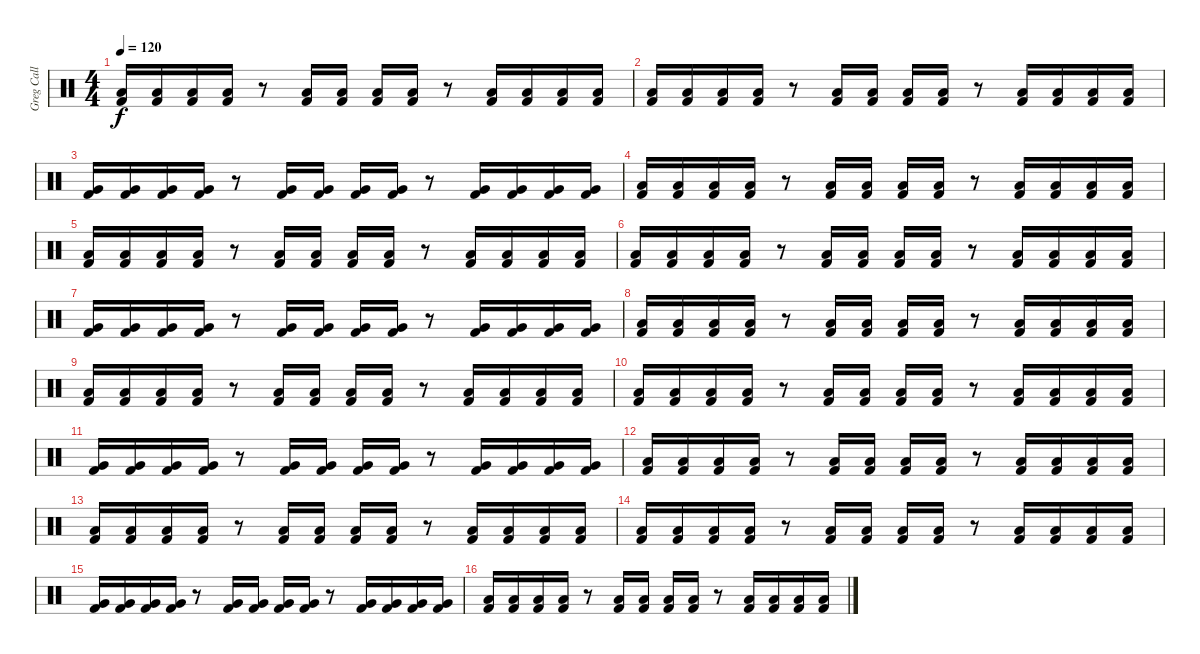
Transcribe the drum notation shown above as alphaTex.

\track ("Greg Call" "Greg Call") {instrument percussion}
\staff {score}
\articulation defaults
\ts (4 4)
\tempo 120
\tempo 126
\tempo 120
\clef neutral
\ks c
("Low Floor Tom (hit)" "Kick (hit) 2").16{dy f volume 14} ("Low Floor Tom (hit)" "Kick (hit) 2").16 ("Low Floor Tom (hit)" "Kick (hit) 2").16 ("Low Floor Tom (hit)" "Kick (hit) 2").16 r.8 ("Low Floor Tom (hit)" "Kick (hit) 2").16 ("Low Floor Tom (hit)" "Kick (hit) 2").16 ("Low Floor Tom (hit)" "Kick (hit) 2").16 ("Low Floor Tom (hit)" "Kick (hit) 2").16 r.8 ("Low Floor Tom (hit)" "Kick (hit) 2").16 ("Low Floor Tom (hit)" "Kick (hit) 2").16 ("Low Floor Tom (hit)" "Kick (hit) 2").16 ("Low Floor Tom (hit)" "Kick (hit) 2").16 |
("Low Floor Tom (hit)" "Kick (hit) 2").16 ("Low Floor Tom (hit)" "Kick (hit) 2").16 ("Low Floor Tom (hit)" "Kick (hit) 2").16 ("Low Floor Tom (hit)" "Kick (hit) 2").16 r.8 ("Low Floor Tom (hit)" "Kick (hit) 2").16 ("Low Floor Tom (hit)" "Kick (hit) 2").16 ("Low Floor Tom (hit)" "Kick (hit) 2").16 ("Low Floor Tom (hit)" "Kick (hit) 2").16 r.8 ("Low Floor Tom (hit)" "Kick (hit) 2").16 ("Low Floor Tom (hit)" "Kick (hit) 2").16 ("Low Floor Tom (hit)" "Kick (hit) 2").16 ("Low Floor Tom (hit)" "Kick (hit) 2").16 |
("Very Low Tom (hit)" "Kick (hit) 2").16 ("Very Low Tom (hit)" "Kick (hit) 2").16 ("Very Low Tom (hit)" "Kick (hit) 2").16 ("Very Low Tom (hit)" "Kick (hit) 2").16 r.8 ("Very Low Tom (hit)" "Kick (hit) 2").16 ("Very Low Tom (hit)" "Kick (hit) 2").16 ("Very Low Tom (hit)" "Kick (hit) 2").16 ("Very Low Tom (hit)" "Kick (hit) 2").16 r.8 ("Very Low Tom (hit)" "Kick (hit) 2").16 ("Very Low Tom (hit)" "Kick (hit) 2").16 ("Very Low Tom (hit)" "Kick (hit) 2").16 ("Very Low Tom (hit)" "Kick (hit) 2").16 |
("Low Tom (hit)" "Kick (hit) 2").16 ("Low Tom (hit)" "Kick (hit) 2").16 ("Low Tom (hit)" "Kick (hit) 2").16 ("Low Tom (hit)" "Kick (hit) 2").16 r.8 ("Low Tom (hit)" "Kick (hit) 2").16 ("Low Tom (hit)" "Kick (hit) 2").16 ("Low Tom (hit)" "Kick (hit) 2").16 ("Low Tom (hit)" "Kick (hit) 2").16 r.8 ("Low Tom (hit)" "Kick (hit) 2").16 ("Low Tom (hit)" "Kick (hit) 2").16 ("Low Tom (hit)" "Kick (hit) 2").16 ("Low Tom (hit)" "Kick (hit) 2").16 |
("Low Floor Tom (hit)" "Kick (hit) 2").16{volume 14} ("Low Floor Tom (hit)" "Kick (hit) 2").16 ("Low Floor Tom (hit)" "Kick (hit) 2").16 ("Low Floor Tom (hit)" "Kick (hit) 2").16 r.8 ("Low Floor Tom (hit)" "Kick (hit) 2").16 ("Low Floor Tom (hit)" "Kick (hit) 2").16 ("Low Floor Tom (hit)" "Kick (hit) 2").16 ("Low Floor Tom (hit)" "Kick (hit) 2").16 r.8 ("Low Floor Tom (hit)" "Kick (hit) 2").16 ("Low Floor Tom (hit)" "Kick (hit) 2").16 ("Low Floor Tom (hit)" "Kick (hit) 2").16 ("Low Floor Tom (hit)" "Kick (hit) 2").16 |
("Low Floor Tom (hit)" "Kick (hit) 2").16 ("Low Floor Tom (hit)" "Kick (hit) 2").16 ("Low Floor Tom (hit)" "Kick (hit) 2").16 ("Low Floor Tom (hit)" "Kick (hit) 2").16 r.8 ("Low Floor Tom (hit)" "Kick (hit) 2").16 ("Low Floor Tom (hit)" "Kick (hit) 2").16 ("Low Floor Tom (hit)" "Kick (hit) 2").16 ("Low Floor Tom (hit)" "Kick (hit) 2").16 r.8 ("Low Floor Tom (hit)" "Kick (hit) 2").16 ("Low Floor Tom (hit)" "Kick (hit) 2").16 ("Low Floor Tom (hit)" "Kick (hit) 2").16 ("Low Floor Tom (hit)" "Kick (hit) 2").16 |
("Very Low Tom (hit)" "Kick (hit) 2").16 ("Very Low Tom (hit)" "Kick (hit) 2").16 ("Very Low Tom (hit)" "Kick (hit) 2").16 ("Very Low Tom (hit)" "Kick (hit) 2").16 r.8 ("Very Low Tom (hit)" "Kick (hit) 2").16 ("Very Low Tom (hit)" "Kick (hit) 2").16 ("Very Low Tom (hit)" "Kick (hit) 2").16 ("Very Low Tom (hit)" "Kick (hit) 2").16 r.8 ("Very Low Tom (hit)" "Kick (hit) 2").16 ("Very Low Tom (hit)" "Kick (hit) 2").16 ("Very Low Tom (hit)" "Kick (hit) 2").16 ("Very Low Tom (hit)" "Kick (hit) 2").16 |
("Low Tom (hit)" "Kick (hit) 2").16 ("Low Tom (hit)" "Kick (hit) 2").16 ("Low Tom (hit)" "Kick (hit) 2").16 ("Low Tom (hit)" "Kick (hit) 2").16 r.8 ("Low Tom (hit)" "Kick (hit) 2").16 ("Low Tom (hit)" "Kick (hit) 2").16 ("Low Tom (hit)" "Kick (hit) 2").16 ("Low Tom (hit)" "Kick (hit) 2").16 r.8 ("Low Tom (hit)" "Kick (hit) 2").16 ("Low Tom (hit)" "Kick (hit) 2").16 ("Low Tom (hit)" "Kick (hit) 2").16 ("Low Tom (hit)" "Kick (hit) 2").16 |
("Low Floor Tom (hit)" "Kick (hit) 2").16{volume 14} ("Low Floor Tom (hit)" "Kick (hit) 2").16 ("Low Floor Tom (hit)" "Kick (hit) 2").16 ("Low Floor Tom (hit)" "Kick (hit) 2").16 r.8 ("Low Floor Tom (hit)" "Kick (hit) 2").16 ("Low Floor Tom (hit)" "Kick (hit) 2").16 ("Low Floor Tom (hit)" "Kick (hit) 2").16 ("Low Floor Tom (hit)" "Kick (hit) 2").16 r.8 ("Low Floor Tom (hit)" "Kick (hit) 2").16 ("Low Floor Tom (hit)" "Kick (hit) 2").16 ("Low Floor Tom (hit)" "Kick (hit) 2").16 ("Low Floor Tom (hit)" "Kick (hit) 2").16 |
("Low Floor Tom (hit)" "Kick (hit) 2").16 ("Low Floor Tom (hit)" "Kick (hit) 2").16 ("Low Floor Tom (hit)" "Kick (hit) 2").16 ("Low Floor Tom (hit)" "Kick (hit) 2").16 r.8 ("Low Floor Tom (hit)" "Kick (hit) 2").16 ("Low Floor Tom (hit)" "Kick (hit) 2").16 ("Low Floor Tom (hit)" "Kick (hit) 2").16 ("Low Floor Tom (hit)" "Kick (hit) 2").16 r.8 ("Low Floor Tom (hit)" "Kick (hit) 2").16 ("Low Floor Tom (hit)" "Kick (hit) 2").16 ("Low Floor Tom (hit)" "Kick (hit) 2").16 ("Low Floor Tom (hit)" "Kick (hit) 2").16 |
("Very Low Tom (hit)" "Kick (hit) 2").16 ("Very Low Tom (hit)" "Kick (hit) 2").16 ("Very Low Tom (hit)" "Kick (hit) 2").16 ("Very Low Tom (hit)" "Kick (hit) 2").16 r.8 ("Very Low Tom (hit)" "Kick (hit) 2").16 ("Very Low Tom (hit)" "Kick (hit) 2").16 ("Very Low Tom (hit)" "Kick (hit) 2").16 ("Very Low Tom (hit)" "Kick (hit) 2").16 r.8 ("Very Low Tom (hit)" "Kick (hit) 2").16 ("Very Low Tom (hit)" "Kick (hit) 2").16 ("Very Low Tom (hit)" "Kick (hit) 2").16 ("Very Low Tom (hit)" "Kick (hit) 2").16 |
("Low Tom (hit)" "Kick (hit) 2").16 ("Low Tom (hit)" "Kick (hit) 2").16 ("Low Tom (hit)" "Kick (hit) 2").16 ("Low Tom (hit)" "Kick (hit) 2").16 r.8 ("Low Tom (hit)" "Kick (hit) 2").16 ("Low Tom (hit)" "Kick (hit) 2").16 ("Low Tom (hit)" "Kick (hit) 2").16 ("Low Tom (hit)" "Kick (hit) 2").16 r.8 ("Low Tom (hit)" "Kick (hit) 2").16 ("Low Tom (hit)" "Kick (hit) 2").16 ("Low Tom (hit)" "Kick (hit) 2").16 ("Low Tom (hit)" "Kick (hit) 2").16 |
("Low Floor Tom (hit)" "Kick (hit) 2").16{volume 14} ("Low Floor Tom (hit)" "Kick (hit) 2").16 ("Low Floor Tom (hit)" "Kick (hit) 2").16 ("Low Floor Tom (hit)" "Kick (hit) 2").16 r.8 ("Low Floor Tom (hit)" "Kick (hit) 2").16 ("Low Floor Tom (hit)" "Kick (hit) 2").16 ("Low Floor Tom (hit)" "Kick (hit) 2").16 ("Low Floor Tom (hit)" "Kick (hit) 2").16 r.8 ("Low Floor Tom (hit)" "Kick (hit) 2").16 ("Low Floor Tom (hit)" "Kick (hit) 2").16 ("Low Floor Tom (hit)" "Kick (hit) 2").16 ("Low Floor Tom (hit)" "Kick (hit) 2").16 |
("Low Floor Tom (hit)" "Kick (hit) 2").16 ("Low Floor Tom (hit)" "Kick (hit) 2").16 ("Low Floor Tom (hit)" "Kick (hit) 2").16 ("Low Floor Tom (hit)" "Kick (hit) 2").16 r.8 ("Low Floor Tom (hit)" "Kick (hit) 2").16 ("Low Floor Tom (hit)" "Kick (hit) 2").16 ("Low Floor Tom (hit)" "Kick (hit) 2").16 ("Low Floor Tom (hit)" "Kick (hit) 2").16 r.8 ("Low Floor Tom (hit)" "Kick (hit) 2").16 ("Low Floor Tom (hit)" "Kick (hit) 2").16 ("Low Floor Tom (hit)" "Kick (hit) 2").16 ("Low Floor Tom (hit)" "Kick (hit) 2").16 |
("Very Low Tom (hit)" "Kick (hit) 2").16 ("Very Low Tom (hit)" "Kick (hit) 2").16 ("Very Low Tom (hit)" "Kick (hit) 2").16 ("Very Low Tom (hit)" "Kick (hit) 2").16 r.8 ("Very Low Tom (hit)" "Kick (hit) 2").16 ("Very Low Tom (hit)" "Kick (hit) 2").16 ("Very Low Tom (hit)" "Kick (hit) 2").16 ("Very Low Tom (hit)" "Kick (hit) 2").16 r.8 ("Very Low Tom (hit)" "Kick (hit) 2").16 ("Very Low Tom (hit)" "Kick (hit) 2").16 ("Very Low Tom (hit)" "Kick (hit) 2").16 ("Very Low Tom (hit)" "Kick (hit) 2").16 |
("Low Tom (hit)" "Kick (hit) 2").16 ("Low Tom (hit)" "Kick (hit) 2").16 ("Low Tom (hit)" "Kick (hit) 2").16 ("Low Tom (hit)" "Kick (hit) 2").16 r.8 ("Low Tom (hit)" "Kick (hit) 2").16 ("Low Tom (hit)" "Kick (hit) 2").16 ("Low Tom (hit)" "Kick (hit) 2").16 ("Low Tom (hit)" "Kick (hit) 2").16 r.8 ("Low Tom (hit)" "Kick (hit) 2").16 ("Low Tom (hit)" "Kick (hit) 2").16 ("Low Tom (hit)" "Kick (hit) 2").16 ("Low Tom (hit)" "Kick (hit) 2").16
